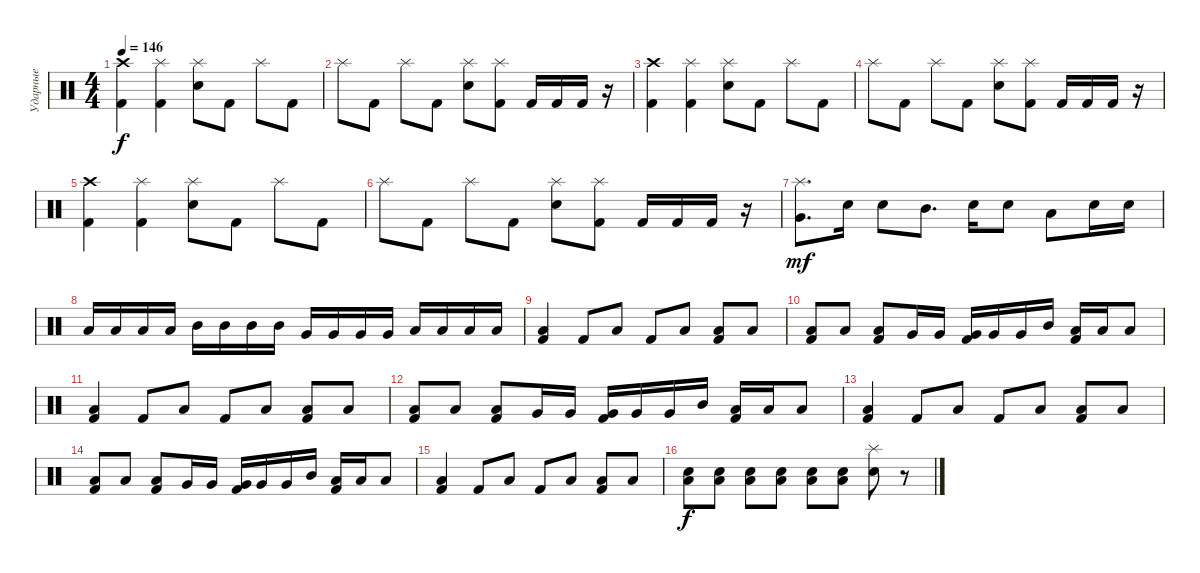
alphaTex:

\track ("Ударные" "Ударные") {instrument percussion}
\staff {score}
\articulation defaults
\ts (4 4)
\tempo 146
\clef neutral
\ks c
("Crash high (hit)" "Kick (hit) 2").4{dy f} ("Splash (hit)" "Kick (hit) 2").4 ("Splash (hit)" "Snare (hit) 2").8 "Kick (hit) 2".8 "Splash (hit)".8 "Kick (hit) 2".8 |
"Splash (hit)".8 "Kick (hit) 2".8 "Splash (hit)".8 "Kick (hit) 2".8 ("Splash (hit)" "Snare (hit) 2").8 ("Splash (hit)" "Kick (hit) 2").8 "Kick (hit) 2".16 "Kick (hit) 2".16 "Kick (hit) 2".16 r.16 |
("Crash high (hit)" "Kick (hit) 2").4 ("Splash (hit)" "Kick (hit) 2").4 ("Splash (hit)" "Snare (hit) 2").8 "Kick (hit) 2".8 "Splash (hit)".8 "Kick (hit) 2".8 |
"Splash (hit)".8 "Kick (hit) 2".8 "Splash (hit)".8 "Kick (hit) 2".8 ("Splash (hit)" "Snare (hit) 2").8 ("Splash (hit)" "Kick (hit) 2").8 "Kick (hit) 2".16 "Kick (hit) 2".16 "Kick (hit) 2".16 r.16 |
("Crash high (hit)" "Kick (hit) 2").4 ("Splash (hit)" "Kick (hit) 2").4 ("Splash (hit)" "Snare (hit) 2").8 "Kick (hit) 2".8 "Splash (hit)".8 "Kick (hit) 2".8 |
"Splash (hit)".8 "Kick (hit) 2".8 "Splash (hit)".8 "Kick (hit) 2".8 ("Splash (hit)" "Snare (hit) 2").8 ("Splash (hit)" "Kick (hit) 2").8 "Kick (hit) 2".16 "Kick (hit) 2".16 "Kick (hit) 2".16 r.16 |
("Splash (hit)" "Very Low Tom (hit)").8{d dy mf} "Snare (hit) 2".16 "Snare (hit) 2".8 "Mid Tom (hit)".8{d} "Snare (hit) 2".16 "Snare (hit) 2".8 "Low Tom (hit)".8 "Snare (hit) 2".16 "Snare (hit) 2".16 |
"Low Tom (hit)".16 "Low Tom (hit)".16 "Low Tom (hit)".16 "Low Tom (hit)".16 "Mid Tom (hit)".16 "Mid Tom (hit)".16 "Mid Tom (hit)".16 "Mid Tom (hit)".16 "Very Low Tom (hit)".16 "Very Low Tom (hit)".16 "Very Low Tom (hit)".16 "Very Low Tom (hit)".16 "Low Floor Tom (hit)".16 "Low Floor Tom (hit)".16 "Low Floor Tom (hit)".16 "Low Floor Tom (hit)".16 |
("Low Tom (hit)" "Kick (hit) 2").4 "Kick (hit) 2".8 "Low Tom (hit)".8 "Kick (hit) 2".8 "Low Tom (hit)".8 ("Low Tom (hit)" "Kick (hit) 2").8 "Low Tom (hit)".8 |
("Low Tom (hit)" "Kick (hit) 2").8 "Low Tom (hit)".8 ("Low Tom (hit)" "Kick (hit) 2").8 "Very Low Tom (hit)".16 "Very Low Tom (hit)".16 ("Very Low Tom (hit)" "Kick (hit) 2").16 "Very Low Tom (hit)".16 "Very Low Tom (hit)".16 "Mid Tom (hit)".16 ("Low Tom (hit)" "Kick (hit) 2").16 "Low Tom (hit)".16 "Low Tom (hit)".8 |
("Low Tom (hit)" "Kick (hit) 2").4 "Kick (hit) 2".8 "Low Tom (hit)".8 "Kick (hit) 2".8 "Low Tom (hit)".8 ("Low Tom (hit)" "Kick (hit) 2").8 "Low Tom (hit)".8 |
("Low Tom (hit)" "Kick (hit) 2").8 "Low Tom (hit)".8 ("Low Tom (hit)" "Kick (hit) 2").8 "Very Low Tom (hit)".16 "Very Low Tom (hit)".16 ("Very Low Tom (hit)" "Kick (hit) 2").16 "Very Low Tom (hit)".16 "Very Low Tom (hit)".16 "Mid Tom (hit)".16 ("Low Tom (hit)" "Kick (hit) 2").16 "Low Tom (hit)".16 "Low Tom (hit)".8 |
("Low Tom (hit)" "Kick (hit) 2").4 "Kick (hit) 2".8 "Low Tom (hit)".8 "Kick (hit) 2".8 "Low Tom (hit)".8 ("Low Tom (hit)" "Kick (hit) 2").8 "Low Tom (hit)".8 |
("Low Tom (hit)" "Kick (hit) 2").8 "Low Tom (hit)".8 ("Low Tom (hit)" "Kick (hit) 2").8 "Very Low Tom (hit)".16 "Very Low Tom (hit)".16 ("Very Low Tom (hit)" "Kick (hit) 2").16 "Very Low Tom (hit)".16 "Very Low Tom (hit)".16 "Mid Tom (hit)".16 ("Low Tom (hit)" "Kick (hit) 2").16 "Low Tom (hit)".16 "Low Tom (hit)".8 |
("Low Tom (hit)" "Kick (hit) 2").4 "Kick (hit) 2".8 "Low Tom (hit)".8 "Kick (hit) 2".8 "Low Tom (hit)".8 ("Low Tom (hit)" "Kick (hit) 2").8 "Low Tom (hit)".8 |
("Snare (hit) 2" "Low Tom (hit)").8{dy f} ("Snare (hit) 2" "Low Tom (hit)").8 ("Snare (hit) 2" "Low Tom (hit)").8 ("Snare (hit) 2" "Low Tom (hit)").8 ("Snare (hit) 2" "Low Tom (hit)").8 ("Snare (hit) 2" "Low Tom (hit)").8 ("Snare (hit) 2" "Splash (hit)").8 r.8
